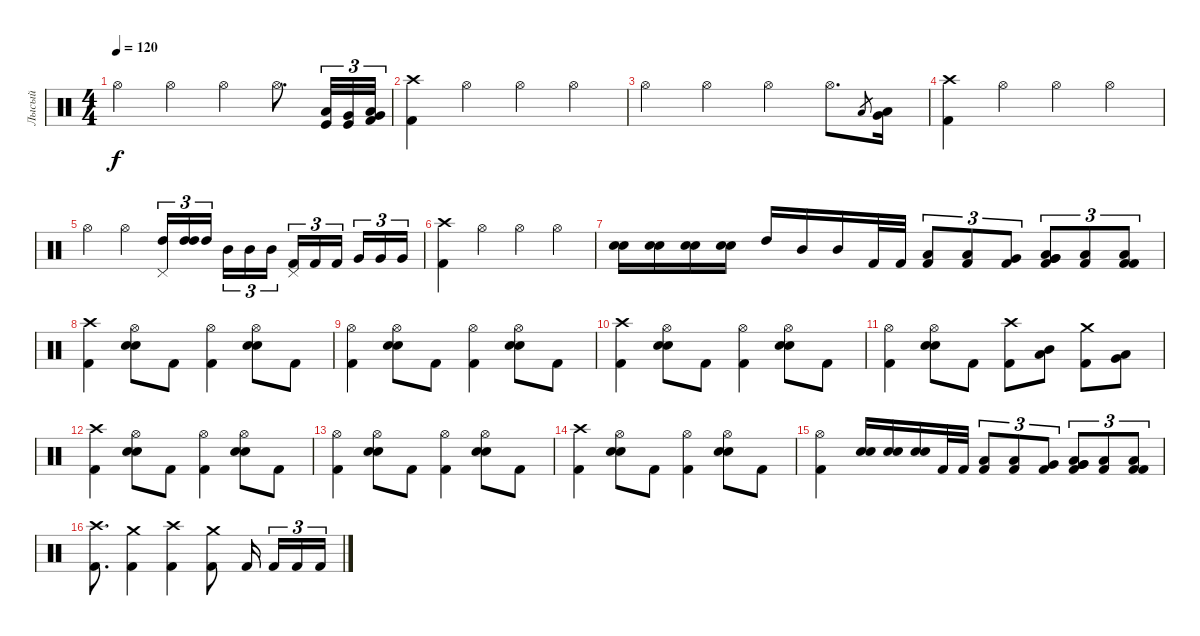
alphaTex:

\track ("Лысый" "Лысый") {instrument percussion}
\staff {score}
\articulation defaults
\ts (4 4)
\tempo 120
\clef neutral
\ks c "Hi-Hat (open)".4{dy f} "Hi-Hat (open)".4 "Hi-Hat (open)".4 "Hi-Hat (open)".8{d}
("Low Tom (hit)" "Kick (hit)").32{tu (3 2)} ("Very Low Tom (hit)" "Kick (hit)").32{tu (3 2)} ("Very Low Tom (hit)" "Low Floor Tom (hit)" "Kick (hit) 2").32{tu (3 2)} |
("Kick (hit) 2" "Crash high (hit)").4 "Hi-Hat (open)".4 "Hi-Hat (open)".4 "Hi-Hat (open)".4 |
"Hi-Hat (open)".4 "Hi-Hat (open)".4 "Hi-Hat (open)".4 "Hi-Hat (open)".8{d} "Low Tom (hit)".8{gr} ("Low Tom (hit)" "Very Low Tom (hit)").16 |
("Kick (hit) 2" "Crash high (hit)").4 "Hi-Hat (open)".4 "Hi-Hat (open)".4 "Hi-Hat (open)".4 |
"Hi-Hat (open)".4 "Hi-Hat (open)".4 ("High Tom (hit)" "Pedal Hi-Hat (hit)").16{tu (3 2)} ("High Tom (hit)" "High Tom (hit)").16{tu (3 2)} "High Tom (hit)".16{tu (3 2) beam splitsecondary} "Mid Tom (hit)".16{tu (3 2)} "Mid Tom (hit)".16{tu (3 2)} "Mid Tom (hit)".16{tu (3 2)} ("Kick (hit) 2" "Pedal Hi-Hat (hit)").16{tu (3 2)} "Kick (hit) 2".16{tu (3 2)} "Kick (hit) 2".16{tu (3 2) beam splitsecondary} "Very Low Tom (hit)".16{tu (3 2)} "Very Low Tom (hit)".16{tu (3 2)} "Very Low Tom (hit)".16{tu (3 2)} |
("Kick (hit) 2" "Crash high (hit)").4 "Hi-Hat (open)".4 "Hi-Hat (open)".4 "Hi-Hat (open)".4 |
("Snare (hit) 2" "Electric Snare (hit)").16 ("Snare (hit) 2" "Electric Snare (hit)").16 ("Snare (hit) 2" "Electric Snare (hit)").16 ("Snare (hit) 2" "Electric Snare (hit)").16 "High Tom (hit)".16 "Mid Tom (hit)".16 "Mid Tom (hit)".16 "Kick (hit) 2".32 "Kick (hit) 2".32 ("Low Tom (hit)" "Kick (hit) 2").8{tu (3 2)} ("Low Tom (hit)" "Kick (hit) 2").8{tu (3 2)} ("Very Low Tom (hit)" "Kick (hit) 2").8{tu (3 2)} ("Very Low Tom (hit)" "Very Low Tom (hit)" "Low Floor Tom (hit)" "Kick (hit) 2").8{tu (3 2)} ("Low Floor Tom (hit)" "Kick (hit) 2").8{tu (3 2)} ("Low Floor Tom (hit)" "Kick (hit) 2" "Kick (hit) 2").8{tu (3 2)} |
("Kick (hit) 2" "Crash high (hit)").4 ("Hi-Hat (open)" "Snare (hit) 2" "Electric Snare (hit)").8 "Kick (hit) 2".8 ("Kick (hit) 2" "Hi-Hat (open)").4 ("Hi-Hat (open)" "Snare (hit) 2" "Electric Snare (hit)").8 "Kick (hit) 2".8 |
("Kick (hit) 2" "Hi-Hat (open)").4 ("Hi-Hat (open)" "Snare (hit) 2" "Electric Snare (hit)").8 "Kick (hit) 2".8 ("Kick (hit) 2" "Hi-Hat (open)").4 ("Hi-Hat (open)" "Snare (hit) 2" "Electric Snare (hit)").8 "Kick (hit) 2".8 |
("Kick (hit) 2" "Crash high (hit)").4 ("Hi-Hat (open)" "Snare (hit) 2" "Electric Snare (hit)").8 "Kick (hit) 2".8 ("Kick (hit) 2" "Hi-Hat (open)").4 ("Hi-Hat (open)" "Snare (hit) 2" "Electric Snare (hit)").8 "Kick (hit) 2".8 |
("Kick (hit) 2" "Hi-Hat (open)").4 ("Hi-Hat (open)" "Snare (hit) 2" "Electric Snare (hit)").8 "Kick (hit) 2".8 ("Kick (hit) 2" "Crash high (hit)").8 ("Mid Tom (hit)" "Low Tom (hit)").8 ("Kick (hit) 2" "Crash medium (hit)").8 ("Very Low Tom (hit)" "Low Floor Tom (hit)").8 |
("Kick (hit) 2" "Crash high (hit)").4 ("Hi-Hat (open)" "Snare (hit) 2" "Electric Snare (hit)").8 "Kick (hit) 2".8 ("Kick (hit) 2" "Hi-Hat (open)").4 ("Hi-Hat (open)" "Snare (hit) 2" "Electric Snare (hit)").8 "Kick (hit) 2".8 |
("Kick (hit) 2" "Hi-Hat (open)").4 ("Hi-Hat (open)" "Snare (hit) 2" "Electric Snare (hit)").8 "Kick (hit) 2".8 ("Kick (hit) 2" "Hi-Hat (open)").4 ("Hi-Hat (open)" "Snare (hit) 2" "Electric Snare (hit)").8 "Kick (hit) 2".8 |
("Kick (hit) 2" "Crash high (hit)").4 ("Hi-Hat (open)" "Snare (hit) 2" "Electric Snare (hit)").8 "Kick (hit) 2".8 ("Kick (hit) 2" "Hi-Hat (open)").4 ("Hi-Hat (open)" "Snare (hit) 2" "Electric Snare (hit)").8 "Kick (hit) 2".8 |
("Kick (hit) 2" "Hi-Hat (open)").4 ("Electric Snare (hit)" "Snare (hit) 2").16 ("Electric Snare (hit)" "Snare (hit) 2").16 ("Electric Snare (hit)" "Snare (hit) 2").16 "Kick (hit) 2".32 "Kick (hit) 2".32 ("Low Tom (hit)" "Kick (hit) 2").8{tu (3 2)} ("Low Tom (hit)" "Kick (hit) 2").8{tu (3 2)} ("Very Low Tom (hit)" "Kick (hit) 2").8{tu (3 2)} ("Very Low Tom (hit)" "Very Low Tom (hit)" "Low Floor Tom (hit)" "Kick (hit) 2").8{tu (3 2)} ("Low Floor Tom (hit)" "Kick (hit) 2").8{tu (3 2)} ("Low Floor Tom (hit)" "Kick (hit) 2" "Kick (hit) 2").8{tu (3 2)} |
("Crash high (hit)" "Kick (hit) 2").8{d} ("Crash medium (hit)" "Kick (hit) 2").4 ("Crash high (hit)" "Kick (hit) 2").4 ("Crash medium (hit)" "Kick (hit) 2").8 "Kick (hit) 2".16{beam splitsecondary} "Kick (hit) 2".16{tu (3 2)} "Kick (hit) 2".16{tu (3 2)} "Kick (hit) 2".16{tu (3 2)}
